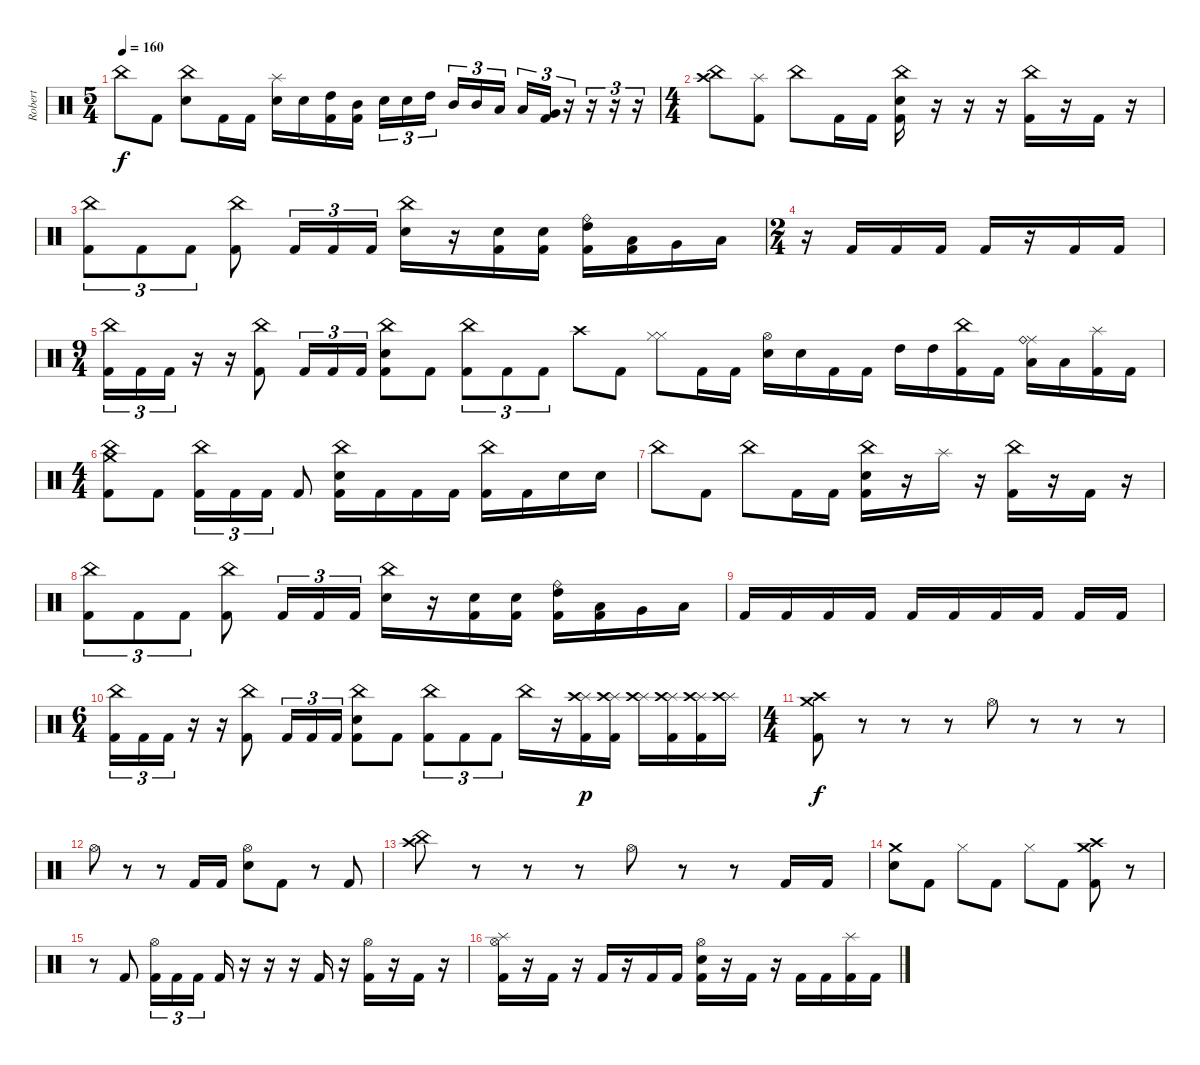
\track ("Robert" "Robert") {instrument percussion}
\staff {score}
\articulation defaults
\ts (5 4)
\tempo 160
\clef neutral
\ks c "China (hit)".8{dy f} "Kick (hit) 2".8
("Electric Snare (hit)" "China (hit)").8 "Kick (hit) 2".16 "Kick (hit) 2".16 ("Electric Snare (hit)" "Splash (hit)").16 "Electric Snare (hit)".16 ("High Tom (hit)" "Kick (hit) 2").16 ("Mid Tom (hit)" "Kick (hit) 2").16 "Electric Snare (hit)".16{tu (3 2)} "Electric Snare (hit)".16{tu (3 2)} "High Tom (hit)".16{tu (3 2) beam splitsecondary} "Mid Tom (hit)".16{tu (3 2)} "Mid Tom (hit)".16{tu (3 2)} "Low Tom (hit)".16{tu (3 2)} "Low Tom (hit)".16{tu (3 2)} ("Very Low Tom (hit)" "Kick (hit) 2").16{tu (3 2)} r.16{tu (3 2)} r.16{tu (3 2)} r.16{tu (3 2)} r.16{tu (3 2)} |
\ts (4 4)
("Crash high (hit)" "China (hit)").8 ("Splash (hit)" "Kick (hit) 2").8 "China (hit)".8 "Kick (hit) 2".16 "Kick (hit) 2".16 ("China (hit)" "Kick (hit) 2" "Electric Snare (hit)").16 r.16 r.16 r.16 ("China (hit)" "Kick (hit) 2").16 r.16 "Kick (hit) 2".16 r.16 |
("China (hit)" "Kick (hit) 2").8{tu (3 2)} "Kick (hit) 2".8{tu (3 2)} "Kick (hit) 2".8{tu (3 2)} ("China (hit)" "Kick (hit) 2").8 "Kick (hit) 2".16{tu (3 2)} "Kick (hit) 2".16{tu (3 2)} "Kick (hit) 2".16{tu (3 2)} ("Electric Snare (hit)" "China (hit)").16 r.16 ("Electric Snare (hit)" "Kick (hit) 2").16 ("Electric Snare (hit)" "Kick (hit) 2").16 ("Ride (bell)" "High Tom (hit)" "Kick (hit) 2").16 ("Low Tom (hit)" "Kick (hit) 2").16 "Very Low Tom (hit)".16 "Low Floor Tom (hit)".16 |
\ts (2 4)
r.16 "Kick (hit) 2".16 "Kick (hit) 2".16 "Kick (hit) 2".16 "Kick (hit) 2".16 r.16 "Kick (hit) 2".16 "Kick (hit) 2".16 |
\ts (9 4)
("China (hit)" "Kick (hit) 2").16{tu (3 2)} "Kick (hit) 2".16{tu (3 2)} "Kick (hit) 2".16{tu (3 2)} r.16 r.16 ("China (hit)" "Kick (hit) 2").8 "Kick (hit) 2".16{tu (3 2)} "Kick (hit) 2".16{tu (3 2)} "Kick (hit) 2".16{tu (3 2)} ("China (hit)" "Electric Snare (hit)" "Kick (hit) 2").8 "Kick (hit) 2".8 ("China (hit)" "Kick (hit) 2").8{tu (3 2)} "Kick (hit) 2".8{tu (3 2)} "Kick (hit) 2".8{tu (3 2)} "Crash high (hit)".8 "Kick (hit) 2".8 ("Hi-Hat (closed)" "Hi-Hat (closed)").8 "Kick (hit) 2".16 "Kick (hit) 2".16 ("Hi-Hat (open)" "Electric Snare (hit)").16 "Electric Snare (hit)".16 "Kick (hit) 2".16 "Kick (hit) 2".16 "High Tom (hit)".16 "High Tom (hit)".16 ("China (hit)" "Kick (hit) 2").16 "Kick (hit) 2".16 ("Ride (middle)" "Ride (bell)" "Low Tom (hit)").16 "Low Tom (hit)".16 ("Splash (hit)" "Kick (hit) 2").16 "Kick (hit) 2".16 |
\ts (4 4)
("Crash medium (hit)" "China (hit)" "Kick (hit) 2").8 "Kick (hit) 2".8 ("China (hit)" "Kick (hit) 2").16{tu (3 2)} "Kick (hit) 2".16{tu (3 2)} "Kick (hit) 2".16{tu (3 2)} "Kick (hit) 2".8 ("Electric Snare (hit)" "China (hit)" "Kick (hit) 2").16 "Kick (hit) 2".16 "Kick (hit) 2".16 "Kick (hit) 2".16 ("China (hit)" "Kick (hit) 2").16 "Kick (hit) 2".16 "Electric Snare (hit)".16 "Electric Snare (hit)".16 |
"China (hit)".8 "Kick (hit) 2".8 "China (hit)".8 "Kick (hit) 2".16 "Kick (hit) 2".16 ("China (hit)" "Kick (hit) 2" "Electric Snare (hit)").16 r.16 "Splash (hit)".16 r.16 ("China (hit)" "Kick (hit) 2").16 r.16 "Kick (hit) 2".16 r.16 |
("China (hit)" "Kick (hit) 2").8{tu (3 2)} "Kick (hit) 2".8{tu (3 2)} "Kick (hit) 2".8{tu (3 2)} ("China (hit)" "Kick (hit) 2").8 "Kick (hit) 2".16{tu (3 2)} "Kick (hit) 2".16{tu (3 2)} "Kick (hit) 2".16{tu (3 2)} ("Electric Snare (hit)" "China (hit)").16 r.16 ("Electric Snare (hit)" "Kick (hit) 2").16 ("Electric Snare (hit)" "Kick (hit) 2").16 ("Ride (bell)" "High Tom (hit)" "Kick (hit) 2").16 ("Low Tom (hit)" "Kick (hit) 2").16 "Very Low Tom (hit)".16 "Low Floor Tom (hit)".16 |
"Kick (hit) 2".16 "Kick (hit) 2".16 "Kick (hit) 2".16 "Kick (hit) 2".16 "Kick (hit) 2".16 "Kick (hit) 2".16 "Kick (hit) 2".16 "Kick (hit) 2".16 "Kick (hit) 2".16 "Kick (hit) 2".16 |
\ts (6 4)
("China (hit)" "Kick (hit) 2").16{tu (3 2)} "Kick (hit) 2".16{tu (3 2)} "Kick (hit) 2".16{tu (3 2)} r.16 r.16 ("China (hit)" "Kick (hit) 2").8 "Kick (hit) 2".16{tu (3 2)} "Kick (hit) 2".16{tu (3 2)} "Kick (hit) 2".16{tu (3 2)} ("Electric Snare (hit)" "China (hit)" "Kick (hit) 2").8 "Kick (hit) 2".8 ("China (hit)" "Kick (hit) 2").8{tu (3 2)} "Kick (hit) 2".8{tu (3 2)} "Kick (hit) 2".8{tu (3 2)} "China (hit)".16 r.16 ("Splash (hit)" "Crash high (hit)" "Kick (hit) 2").16{dy p} ("Splash (hit)" "Crash high (hit)" "Kick (hit) 2").16 ("Splash (hit)" "Crash high (hit)").16 ("Splash (hit)" "Crash high (hit)" "Kick (hit) 2").16 ("Splash (hit)" "Crash high (hit)" "Kick (hit) 2").16 ("Splash (hit)" "Crash high (hit)").16 |
\ts (4 4)
("Kick (hit) 2" "Crash medium (hit)" "Crash high (hit)").8{dy f} r.8 r.8 r.8 "Hi-Hat (open)".8 r.8 r.8 r.8 |
"Hi-Hat (open)".8 r.8 r.8 "Kick (hit) 2".16 "Kick (hit) 2".16 ("Hi-Hat (open)" "Electric Snare (hit)").8 "Kick (hit) 2".8 r.8 "Kick (hit) 2".8 |
("Crash high (hit)" "China (hit)").8 r.8 r.8 r.8 "Hi-Hat (open)".8 r.8 r.8 "Kick (hit) 2".16 "Kick (hit) 2".16 |
("Crash medium (hit)" "Electric Snare (hit)").8 "Kick (hit) 2".8 "Hi-Hat (closed)".8 "Kick (hit) 2".8 "Hi-Hat (closed)".8 "Kick (hit) 2".8 ("Crash high (hit)" "Crash medium (hit)" "Kick (hit) 2").8 r.8 |
r.8 "Kick (hit) 2".8 ("Hi-Hat (open)" "Kick (hit) 2").16{tu (3 2)} "Kick (hit) 2".16{tu (3 2)} "Kick (hit) 2".16{tu (3 2) beam splitsecondary} "Kick (hit) 2".16 r.16 r.16 r.16 "Kick (hit) 2".16 r.16 ("Hi-Hat (open)" "Kick (hit) 2").16 r.16 "Kick (hit) 2".16 r.16 |
("Hi-Hat (open)" "Splash (hit)" "Kick (hit) 2").16 r.16 "Kick (hit) 2".16 r.16 "Kick (hit) 2".16 r.16 "Kick (hit) 2".16 "Kick (hit) 2".16 ("Hi-Hat (open)" "Electric Snare (hit)" "Kick (hit) 2").16 r.16 "Kick (hit) 2".16 r.16 "Kick (hit) 2".16 "Kick (hit) 2".16 ("Splash (hit)" "Kick (hit) 2").16 "Kick (hit) 2".16
